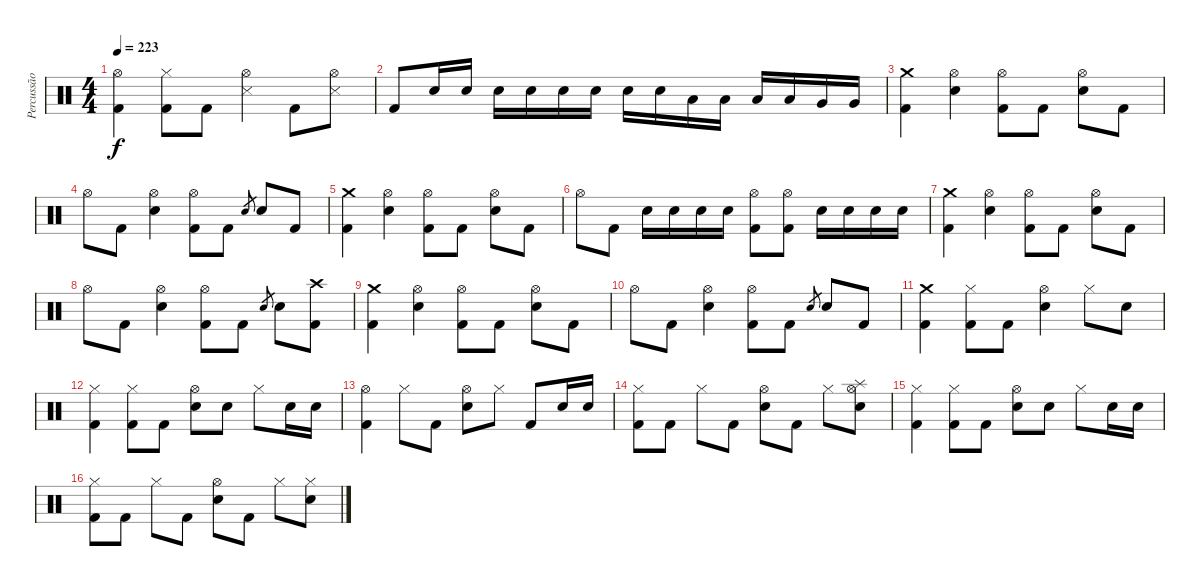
\track ("Percussão" "Percussão") {instrument percussion}
\staff {score}
\articulation defaults
\ts (4 4)
\tempo 223
\clef neutral
\ks c
("Hi-Hat (open)" "Kick (hit) 2").4{dy f} ("Hi-Hat (closed)" "Kick (hit) 2").8 "Kick (hit) 2".8 ("Hi-Hat (open)" "Snare (side stick) 3").4 "Kick (hit) 2".8 ("Hi-Hat (open)" "Snare (side stick) 3").8 |
"Kick (hit) 2".8 "Snare (hit) 2".16 "Snare (hit) 2".16 "Snare (hit) 2".16 "Snare (hit) 2".16 "Snare (hit) 2".16 "Snare (hit) 2".16 "Snare (hit) 2".16 "Snare (hit) 2".16 "Low Tom (hit)".16 "Low Tom (hit)".16 "Low Tom (hit)".16 "Low Tom (hit)".16 "Very Low Tom (hit)".16 "Very Low Tom (hit)".16 |
("Crash medium (hit)" "Kick (hit) 2").4 ("Hi-Hat (open)" "Snare (hit) 2").4 ("Hi-Hat (open)" "Kick (hit) 2").8 "Kick (hit) 2".8 ("Hi-Hat (open)" "Snare (hit) 2").8 "Kick (hit) 2".8 |
"Hi-Hat (open)".8 "Kick (hit) 2".8 ("Hi-Hat (open)" "Snare (hit) 2").4 ("Hi-Hat (open)" "Kick (hit) 2").8 "Kick (hit) 2".8 "Snare (hit) 2".8{gr} "Snare (hit) 2".8 "Kick (hit) 2".8 |
("Crash medium (hit)" "Kick (hit) 2").4 ("Hi-Hat (open)" "Snare (hit) 2").4 ("Hi-Hat (open)" "Kick (hit) 2").8 "Kick (hit) 2".8 ("Hi-Hat (open)" "Snare (hit) 2").8 "Kick (hit) 2".8 |
"Hi-Hat (open)".8 "Kick (hit) 2".8 "Snare (hit) 2".16 "Snare (hit) 2".16 "Snare (hit) 2".16 "Snare (hit) 2".16 ("Hi-Hat (open)" "Kick (hit) 2").8 ("Hi-Hat (open)" "Kick (hit) 2").8 "Snare (hit) 2".16 "Snare (hit) 2".16 "Snare (hit) 2".16 "Snare (hit) 2".16 |
("Crash medium (hit)" "Kick (hit) 2").4 ("Hi-Hat (open)" "Snare (hit) 2").4 ("Hi-Hat (open)" "Kick (hit) 2").8 "Kick (hit) 2".8 ("Hi-Hat (open)" "Snare (hit) 2").8 "Kick (hit) 2".8 |
"Hi-Hat (open)".8 "Kick (hit) 2".8 ("Hi-Hat (open)" "Snare (hit) 2").4 ("Hi-Hat (open)" "Kick (hit) 2").8 "Kick (hit) 2".8 "Snare (hit) 2".8{gr} "Snare (hit) 2".8 ("Crash high (hit)" "Kick (hit) 2").8 |
("Crash medium (hit)" "Kick (hit) 2").4 ("Hi-Hat (open)" "Snare (hit) 2").4 ("Hi-Hat (open)" "Kick (hit) 2").8 "Kick (hit) 2".8 ("Hi-Hat (open)" "Snare (hit) 2").8 "Kick (hit) 2".8 |
"Hi-Hat (open)".8 "Kick (hit) 2".8 ("Hi-Hat (open)" "Snare (hit) 2").4 ("Hi-Hat (open)" "Kick (hit) 2").8 "Kick (hit) 2".8 "Snare (hit) 2".8{gr} "Snare (hit) 2".8 "Kick (hit) 2".8 |
("Crash medium (hit)" "Kick (hit) 2").4 ("Hi-Hat (closed)" "Kick (hit) 2").8 "Kick (hit) 2".8 ("Hi-Hat (open)" "Snare (hit) 2").4 "Hi-Hat (closed)".8 "Snare (hit) 2".8 |
("Hi-Hat (closed)" "Kick (hit) 2").4 ("Hi-Hat (closed)" "Kick (hit) 2").8 "Kick (hit) 2".8 ("Hi-Hat (open)" "Snare (hit) 2").8 "Snare (hit) 2".8 "Hi-Hat (closed)".8 "Snare (hit) 2".16 "Snare (hit) 2".16 |
("Hi-Hat (open)" "Kick (hit) 2").4 "Hi-Hat (closed)".8 "Kick (hit) 2".8 ("Hi-Hat (open)" "Snare (hit) 2").8 "Hi-Hat (closed)".8 "Kick (hit) 2".8 "Snare (hit) 2".16 "Snare (hit) 2".16 |
("Hi-Hat (closed)" "Kick (hit) 2").8 "Kick (hit) 2".8 "Hi-Hat (closed)".8 "Kick (hit) 2".8 ("Hi-Hat (open)" "Snare (hit) 2").8 "Kick (hit) 2".8 "Hi-Hat (closed)".8 ("Splash (hit)" "Snare (hit) 2" "Hi-Hat (open)").8 |
("Hi-Hat (closed)" "Kick (hit) 2").4 ("Hi-Hat (closed)" "Kick (hit) 2").8 "Kick (hit) 2".8 ("Hi-Hat (open)" "Snare (hit) 2").8 "Snare (hit) 2".8 "Hi-Hat (closed)".8 "Snare (hit) 2".16 "Snare (hit) 2".16 |
("Hi-Hat (closed)" "Kick (hit) 2").8 "Kick (hit) 2".8 "Hi-Hat (closed)".8 "Kick (hit) 2".8 ("Hi-Hat (open)" "Snare (hit) 2").8 "Kick (hit) 2".8 "Hi-Hat (closed)".8 ("Hi-Hat (closed)" "Snare (hit) 2").8
